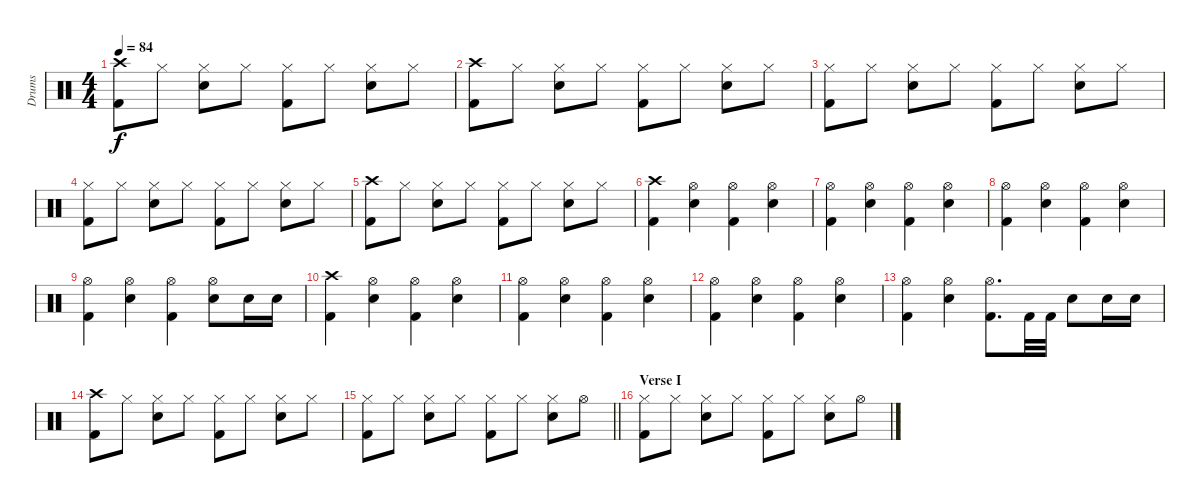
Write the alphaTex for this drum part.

\track ("Drums" "Drums") {instrument percussion}
\staff {score}
\articulation defaults
\ts (4 4)
\tempo 84
\clef neutral
\ks c
("Crash high (hit)" "Kick (hit) 2").8{dy f} "Hi-Hat (closed)".8 ("Hi-Hat (closed)" "Snare (hit) 2").8 "Hi-Hat (closed)".8 ("Hi-Hat (closed)" "Kick (hit) 2").8 "Hi-Hat (closed)".8 ("Hi-Hat (closed)" "Snare (hit) 2").8 "Hi-Hat (closed)".8 |
("Crash high (hit)" "Kick (hit) 2").8 "Hi-Hat (closed)".8 ("Hi-Hat (closed)" "Snare (hit) 2").8 "Hi-Hat (closed)".8 ("Hi-Hat (closed)" "Kick (hit) 2").8 "Hi-Hat (closed)".8 ("Hi-Hat (closed)" "Snare (hit) 2").8 "Hi-Hat (closed)".8 |
("Hi-Hat (closed)" "Kick (hit) 2").8 "Hi-Hat (closed)".8 ("Hi-Hat (closed)" "Snare (hit) 2").8 "Hi-Hat (closed)".8 ("Hi-Hat (closed)" "Kick (hit) 2").8 "Hi-Hat (closed)".8 ("Hi-Hat (closed)" "Snare (hit) 2").8 "Hi-Hat (closed)".8 |
("Hi-Hat (closed)" "Kick (hit) 2").8 "Hi-Hat (closed)".8 ("Hi-Hat (closed)" "Snare (hit) 2").8 "Hi-Hat (closed)".8 ("Hi-Hat (closed)" "Kick (hit) 2").8 "Hi-Hat (closed)".8 ("Hi-Hat (closed)" "Snare (hit) 2").8 "Hi-Hat (closed)".8 |
("Crash high (hit)" "Kick (hit) 2").8 "Hi-Hat (closed)".8 ("Hi-Hat (closed)" "Snare (hit) 2").8 "Hi-Hat (closed)".8 ("Hi-Hat (closed)" "Kick (hit) 2").8 "Hi-Hat (closed)".8 ("Hi-Hat (closed)" "Snare (hit) 2").8 "Hi-Hat (closed)".8 |
("Crash high (hit)" "Kick (hit) 2").4 ("Hi-Hat (open)" "Snare (hit) 2").4 ("Hi-Hat (open)" "Kick (hit) 2").4 ("Hi-Hat (open)" "Snare (hit) 2").4 |
("Hi-Hat (open)" "Kick (hit) 2").4 ("Hi-Hat (open)" "Snare (hit) 2").4 ("Hi-Hat (open)" "Kick (hit) 2").4 ("Hi-Hat (open)" "Snare (hit) 2").4 |
("Hi-Hat (open)" "Kick (hit) 2").4 ("Hi-Hat (open)" "Snare (hit) 2").4 ("Hi-Hat (open)" "Kick (hit) 2").4 ("Hi-Hat (open)" "Snare (hit) 2").4 |
("Hi-Hat (open)" "Kick (hit) 2").4 ("Hi-Hat (open)" "Snare (hit) 2").4 ("Hi-Hat (open)" "Kick (hit) 2").4 ("Hi-Hat (open)" "Snare (hit) 2").8 "Snare (hit) 2".16 "Snare (hit) 2".16 |
("Crash high (hit)" "Kick (hit) 2").4 ("Hi-Hat (open)" "Snare (hit) 2").4 ("Hi-Hat (open)" "Kick (hit) 2").4 ("Hi-Hat (open)" "Snare (hit) 2").4 |
("Hi-Hat (open)" "Kick (hit) 2").4 ("Hi-Hat (open)" "Snare (hit) 2").4 ("Hi-Hat (open)" "Kick (hit) 2").4 ("Hi-Hat (open)" "Snare (hit) 2").4 |
("Hi-Hat (open)" "Kick (hit) 2").4 ("Hi-Hat (open)" "Snare (hit) 2").4 ("Hi-Hat (open)" "Kick (hit) 2").4 ("Hi-Hat (open)" "Snare (hit) 2").4 |
("Hi-Hat (open)" "Kick (hit) 2").4 ("Hi-Hat (open)" "Snare (hit) 2").4 ("Hi-Hat (open)" "Kick (hit) 2").8{d} "Kick (hit) 2".32 "Kick (hit) 2".32 "Snare (hit) 2".8 "Snare (hit) 2".16 "Snare (hit) 2".16 |
("Crash high (hit)" "Kick (hit) 2").8 "Hi-Hat (closed)".8 ("Hi-Hat (closed)" "Snare (hit) 2").8 "Hi-Hat (closed)".8 ("Hi-Hat (closed)" "Kick (hit) 2").8 "Hi-Hat (closed)".8 ("Hi-Hat (closed)" "Snare (hit) 2").8 "Hi-Hat (closed)".8 |
\barLineRight lightlight
("Hi-Hat (closed)" "Kick (hit) 2").8 "Hi-Hat (closed)".8 ("Hi-Hat (closed)" "Snare (hit) 2").8 "Hi-Hat (closed)".8 ("Hi-Hat (closed)" "Kick (hit) 2").8 "Hi-Hat (closed)".8 ("Hi-Hat (closed)" "Snare (hit) 2").8 "Hi-Hat (open)".8 |
\section ("" "Verse I")
("Hi-Hat (closed)" "Kick (hit) 2").8 "Hi-Hat (closed)".8 ("Hi-Hat (closed)" "Snare (hit) 2").8 "Hi-Hat (closed)".8 ("Hi-Hat (closed)" "Kick (hit) 2").8 "Hi-Hat (closed)".8 ("Hi-Hat (closed)" "Snare (hit) 2").8 "Hi-Hat (open)".8
